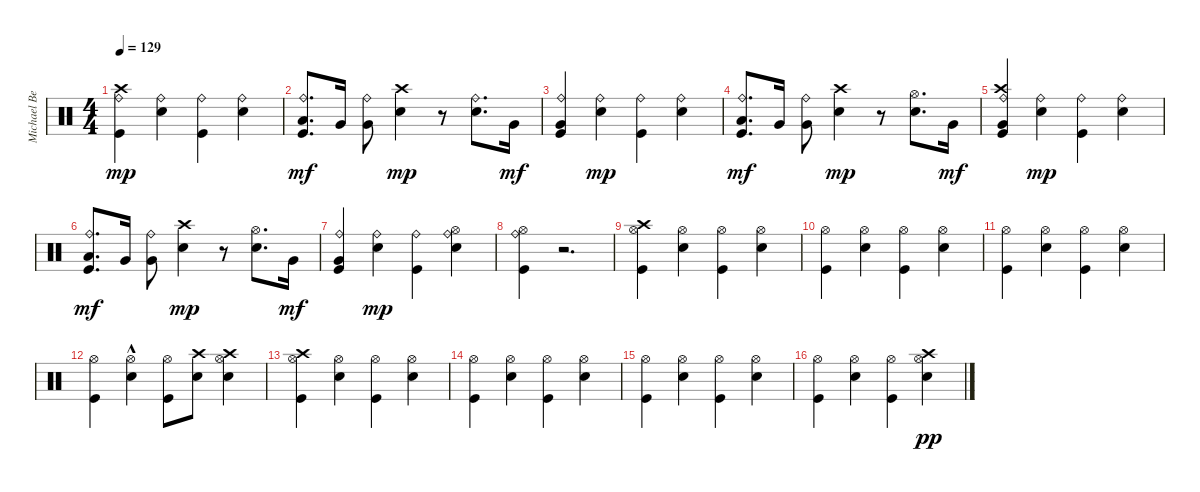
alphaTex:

\track ("Michael Beinham" "Michael Be") {instrument percussion}
\staff {score}
\articulation defaults
\ts (4 4)
\tempo 129
\clef neutral
\ks c
("Kick (hit)" "Ride (bell)" "Crash high (hit)").4{dy mp} ("Snare (hit) 2" "Ride (bell)").4 ("Kick (hit)" "Ride (bell)").4 ("Snare (hit) 2" "Ride (bell)").4 |
("Kick (hit)" "Ride (bell)" "Low Tom (hit)").8{d dy mf} "Very Low Tom (hit)".16 ("Ride (bell)" "Very Low Tom (hit)").8 ("Snare (hit) 2" "Crash high (hit)").4{dy mp} r.8 ("Snare (hit) 2" "Ride (bell)").8{d} "Very Low Tom (hit)".16{dy mf} |
("Kick (hit)" "Ride (bell)" "Very Low Tom (hit)").4 ("Snare (hit) 2" "Ride (bell)").4{dy mp} ("Kick (hit)" "Ride (bell)").4 ("Snare (hit) 2" "Ride (bell)").4 |
("Kick (hit)" "Ride (bell)" "Low Tom (hit)").8{d dy mf} "Very Low Tom (hit)".16 ("Ride (bell)" "Very Low Tom (hit)").8 ("Snare (hit) 2" "Crash high (hit)").4{dy mp} r.8 ("Snare (hit) 2" "Hi-Hat (open)").8{d} "Very Low Tom (hit)".16{dy mf} |
("Kick (hit)" "Ride (bell)" "Crash high (hit)" "Very Low Tom (hit)").4 ("Snare (hit) 2" "Ride (bell)").4{dy mp} ("Kick (hit)" "Ride (bell)").4 ("Snare (hit) 2" "Ride (bell)").4 |
("Kick (hit)" "Ride (bell)" "Low Tom (hit)").8{d dy mf} "Very Low Tom (hit)".16 ("Ride (bell)" "Very Low Tom (hit)").8 ("Snare (hit) 2" "Crash high (hit)").4{dy mp} r.8 ("Snare (hit) 2" "Hi-Hat (open)").8{d} "Very Low Tom (hit)".16{dy mf} |
("Kick (hit)" "Ride (bell)" "Very Low Tom (hit)").4 ("Snare (hit) 2" "Ride (bell)").4{dy mp} ("Kick (hit)" "Ride (bell)").4 ("Snare (hit) 2" "Hi-Hat (open)" "Ride (bell)").4 |
("Kick (hit)" "Hi-Hat (open)" "Ride (bell)").4 r.2{d} |
("Kick (hit)" "Hi-Hat (open)" "Crash high (hit)").4 ("Snare (hit) 2" "Hi-Hat (open)").4 ("Kick (hit)" "Hi-Hat (open)").4 ("Snare (hit) 2" "Hi-Hat (open)").4 |
("Kick (hit)" "Hi-Hat (open)").4 ("Snare (hit) 2" "Hi-Hat (open)").4 ("Kick (hit)" "Hi-Hat (open)").4 ("Snare (hit) 2" "Hi-Hat (open)").4 |
("Kick (hit)" "Hi-Hat (open)").4 ("Snare (hit) 2" "Hi-Hat (open)").4 ("Kick (hit)" "Hi-Hat (open)").4 ("Snare (hit) 2" "Hi-Hat (open)").4 |
("Kick (hit)" "Hi-Hat (open)").4 ("Snare (hit) 2"{hac} "Hi-Hat (open)").4 ("Kick (hit)" "Hi-Hat (open)").8 ("Snare (hit) 2" "Crash high (hit)").8 ("Snare (hit) 2" "Hi-Hat (open)" "Crash high (hit)").4 |
("Kick (hit)" "Hi-Hat (open)" "Crash high (hit)").4 ("Snare (hit) 2" "Hi-Hat (open)").4 ("Kick (hit)" "Hi-Hat (open)").4 ("Snare (hit) 2" "Hi-Hat (open)").4 |
("Kick (hit)" "Hi-Hat (open)").4 ("Snare (hit) 2" "Hi-Hat (open)").4 ("Kick (hit)" "Hi-Hat (open)").4 ("Snare (hit) 2" "Hi-Hat (open)").4 |
("Kick (hit)" "Hi-Hat (open)").4 ("Snare (hit) 2" "Hi-Hat (open)").4 ("Kick (hit)" "Hi-Hat (open)").4 ("Snare (hit) 2" "Hi-Hat (open)").4 |
("Kick (hit)" "Hi-Hat (open)").4 ("Snare (hit) 2" "Hi-Hat (open)").4 ("Kick (hit)" "Hi-Hat (open)").4 ("Snare (hit) 2" "Hi-Hat (open)" "Crash high (hit)").4{dy pp}
